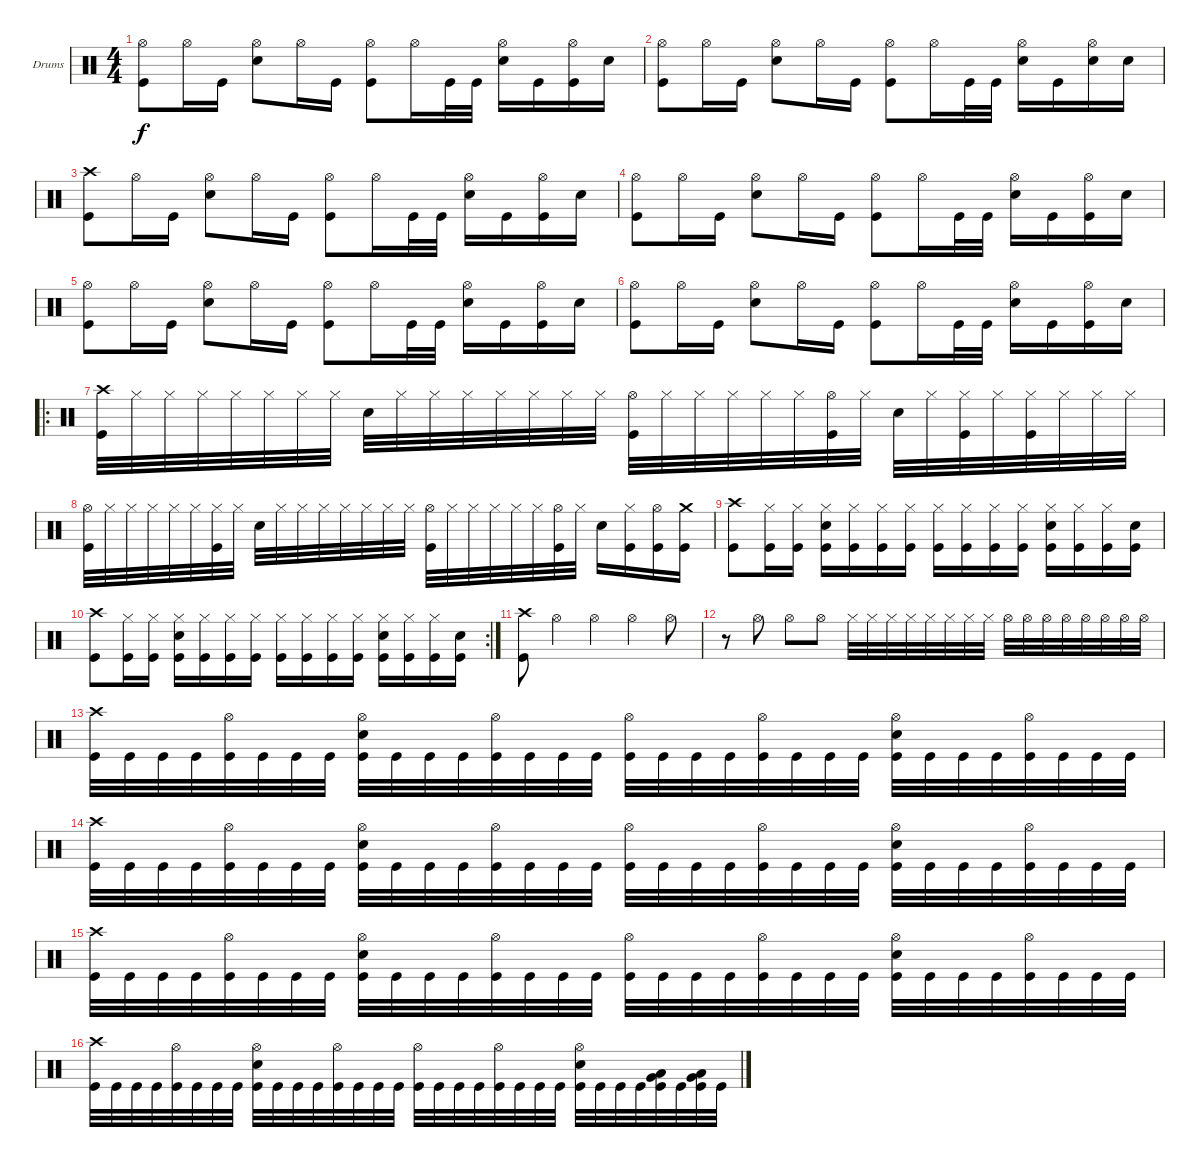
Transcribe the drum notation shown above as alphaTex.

\bracketExtendMode groupsimilarinstruments
\firstSystemTrackNameOrientation horizontal
\otherSystemsTrackNameOrientation horizontal
\track ("Drumkit" "Drums") {instrument percussion}
\staff {score}
\articulation defaults
\ts (4 4)
\tempo (80 hide)
\clef neutral
\ks c
("Hi-Hat (open)" "Kick (hit)").8{dy f} "Hi-Hat (open)".16 "Kick (hit)".16 ("Hi-Hat (open)" "Snare (hit) 2").8 "Hi-Hat (open)".16 "Kick (hit)".16 ("Hi-Hat (open)" "Kick (hit)").8 "Hi-Hat (open)".16 "Kick (hit)".32 "Kick (hit)".32 ("Hi-Hat (open)" "Snare (hit) 2").16 "Kick (hit)".16 ("Hi-Hat (open)" "Kick (hit)").16 "Snare (hit) 2".16 |
("Hi-Hat (open)" "Kick (hit)").8 "Hi-Hat (open)".16 "Kick (hit)".16 ("Hi-Hat (open)" "Snare (hit) 2").8 "Hi-Hat (open)".16 "Kick (hit)".16 ("Hi-Hat (open)" "Kick (hit)").8 "Hi-Hat (open)".16 "Kick (hit)".32 "Kick (hit)".32 ("Hi-Hat (open)" "Snare (hit) 2").16 "Kick (hit)".16 ("Hi-Hat (open)" "Snare (hit) 2").16 "Snare (hit) 2".16 |
("Crash high (hit)" "Kick (hit)").8 "Hi-Hat (open)".16 "Kick (hit)".16 ("Hi-Hat (open)" "Snare (hit) 2").8 "Hi-Hat (open)".16 "Kick (hit)".16 ("Hi-Hat (open)" "Kick (hit)").8 "Hi-Hat (open)".16 "Kick (hit)".32 "Kick (hit)".32 ("Hi-Hat (open)" "Snare (hit) 2").16 "Kick (hit)".16 ("Hi-Hat (open)" "Kick (hit)").16 "Snare (hit) 2".16 |
("Hi-Hat (open)" "Kick (hit)").8 "Hi-Hat (open)".16 "Kick (hit)".16 ("Hi-Hat (open)" "Snare (hit) 2").8 "Hi-Hat (open)".16 "Kick (hit)".16 ("Hi-Hat (open)" "Kick (hit)").8 "Hi-Hat (open)".16 "Kick (hit)".32 "Kick (hit)".32 ("Hi-Hat (open)" "Snare (hit) 2").16 "Kick (hit)".16 ("Hi-Hat (open)" "Kick (hit)").16 "Snare (hit) 2".16 |
("Hi-Hat (open)" "Kick (hit)").8 "Hi-Hat (open)".16 "Kick (hit)".16 ("Hi-Hat (open)" "Snare (hit) 2").8 "Hi-Hat (open)".16 "Kick (hit)".16 ("Hi-Hat (open)" "Kick (hit)").8 "Hi-Hat (open)".16 "Kick (hit)".32 "Kick (hit)".32 ("Hi-Hat (open)" "Snare (hit) 2").16 "Kick (hit)".16 ("Hi-Hat (open)" "Kick (hit)").16 "Snare (hit) 2".16 |
("Hi-Hat (open)" "Kick (hit)").8 "Hi-Hat (open)".16 "Kick (hit)".16 ("Hi-Hat (open)" "Snare (hit) 2").8 "Hi-Hat (open)".16 "Kick (hit)".16 ("Hi-Hat (open)" "Kick (hit)").8 "Hi-Hat (open)".16 "Kick (hit)".32 "Kick (hit)".32 ("Hi-Hat (open)" "Snare (hit) 2").16 "Kick (hit)".16 ("Hi-Hat (open)" "Kick (hit)").16 "Snare (hit) 2".16 |
\ro
("Crash high (hit)" "Kick (hit)").32 "Hi-Hat (closed)".32 "Hi-Hat (closed)".32 "Hi-Hat (closed)".32 "Hi-Hat (closed)".32 "Hi-Hat (closed)".32 "Hi-Hat (closed)".32 "Hi-Hat (closed)".32 "Snare (hit) 2".32 "Hi-Hat (closed)".32 "Hi-Hat (closed)".32 "Hi-Hat (closed)".32 "Hi-Hat (closed)".32 "Hi-Hat (closed)".32 "Hi-Hat (closed)".32 "Hi-Hat (closed)".32 ("Hi-Hat (open)" "Kick (hit)").32 "Hi-Hat (closed)".32 "Hi-Hat (closed)".32 "Hi-Hat (closed)".32 "Hi-Hat (closed)".32 "Hi-Hat (closed)".32 ("Hi-Hat (open)" "Kick (hit)").32 "Hi-Hat (closed)".32 "Snare (hit) 2".32 "Hi-Hat (closed)".32 ("Hi-Hat (closed)" "Kick (hit)").32 "Hi-Hat (closed)".32 ("Hi-Hat (closed)" "Kick (hit)").32 "Hi-Hat (closed)".32 "Hi-Hat (closed)".32 "Hi-Hat (closed)".32 |
("Hi-Hat (open)" "Kick (hit)").32 "Hi-Hat (closed)".32 "Hi-Hat (closed)".32 "Hi-Hat (closed)".32 "Hi-Hat (closed)".32 "Hi-Hat (closed)".32 ("Hi-Hat (closed)" "Kick (hit)").32 "Hi-Hat (closed)".32 "Snare (hit) 2".32 "Hi-Hat (closed)".32 "Hi-Hat (closed)".32 "Hi-Hat (closed)".32 "Hi-Hat (closed)".32 "Hi-Hat (closed)".32 "Hi-Hat (closed)".32 "Hi-Hat (closed)".32 ("Hi-Hat (open)" "Kick (hit)").32 "Hi-Hat (closed)".32 "Hi-Hat (closed)".32 "Hi-Hat (closed)".32 "Hi-Hat (closed)".32 "Hi-Hat (closed)".32 ("Hi-Hat (open)" "Kick (hit)").32 "Hi-Hat (closed)".32 "Snare (hit) 2".16 ("Hi-Hat (closed)" "Kick (hit)").16 ("Hi-Hat (open)" "Kick (hit)").16 ("Crash medium (hit)" "Kick (hit)").16 |
("Crash high (hit)" "Kick (hit)").8 ("Hi-Hat (closed)" "Kick (hit)").16 ("Hi-Hat (closed)" "Kick (hit)").16 ("Hi-Hat (closed)" "Snare (hit) 2" "Kick (hit)").16 ("Hi-Hat (closed)" "Kick (hit)").16 ("Hi-Hat (closed)" "Kick (hit)").16 ("Hi-Hat (closed)" "Kick (hit)").16 ("Hi-Hat (closed)" "Kick (hit)").16 ("Hi-Hat (closed)" "Kick (hit)").16 ("Hi-Hat (closed)" "Kick (hit)").16 ("Hi-Hat (closed)" "Kick (hit)").16 ("Hi-Hat (closed)" "Snare (hit) 2" "Kick (hit)").16 ("Hi-Hat (closed)" "Kick (hit)").16 ("Hi-Hat (closed)" "Kick (hit)").16 ("Snare (hit) 2" "Kick (hit)").16 |
\rc 2
("Crash high (hit)" "Kick (hit)").8 ("Hi-Hat (closed)" "Kick (hit)").16 ("Hi-Hat (closed)" "Kick (hit)").16 ("Hi-Hat (closed)" "Snare (hit) 2" "Kick (hit)").16 ("Hi-Hat (closed)" "Kick (hit)").16 ("Hi-Hat (closed)" "Kick (hit)").16 ("Hi-Hat (closed)" "Kick (hit)").16 ("Hi-Hat (closed)" "Kick (hit)").16 ("Hi-Hat (closed)" "Kick (hit)").16 ("Hi-Hat (closed)" "Kick (hit)").16 ("Hi-Hat (closed)" "Kick (hit)").16 ("Hi-Hat (closed)" "Snare (hit) 2" "Kick (hit)").16 ("Hi-Hat (closed)" "Kick (hit)").16 ("Hi-Hat (closed)" "Kick (hit)").16 ("Snare (hit) 2" "Kick (hit)").16 |
("Crash high (hit)" "Kick (hit)").8 "Hi-Hat (open)".4 "Hi-Hat (open)".4 "Hi-Hat (open)".4 "Hi-Hat (open)".8 |
r.8 "Hi-Hat (open)".8 "Hi-Hat (open)".8 "Hi-Hat (open)".8 "Hi-Hat (closed)".32 "Hi-Hat (closed)".32 "Hi-Hat (closed)".32 "Hi-Hat (closed)".32 "Hi-Hat (closed)".32 "Hi-Hat (closed)".32 "Hi-Hat (closed)".32 "Hi-Hat (closed)".32 "Hi-Hat (open)".32 "Hi-Hat (open)".32 "Hi-Hat (open)".32 "Hi-Hat (open)".32 "Hi-Hat (open)".32 "Hi-Hat (open)".32 "Hi-Hat (open)".32 "Hi-Hat (open)".32 |
("Crash high (hit)" "Kick (hit)").32 "Kick (hit)".32 "Kick (hit)".32 "Kick (hit)".32 ("Hi-Hat (open)" "Kick (hit)").32 "Kick (hit)".32 "Kick (hit)".32 "Kick (hit)".32 ("Hi-Hat (open)" "Snare (hit) 2" "Kick (hit)").32 "Kick (hit)".32 "Kick (hit)".32 "Kick (hit)".32 ("Hi-Hat (open)" "Kick (hit)").32 "Kick (hit)".32 "Kick (hit)".32 "Kick (hit)".32 ("Hi-Hat (open)" "Kick (hit)").32 "Kick (hit)".32 "Kick (hit)".32 "Kick (hit)".32 ("Hi-Hat (open)" "Kick (hit)").32 "Kick (hit)".32 "Kick (hit)".32 "Kick (hit)".32 ("Hi-Hat (open)" "Snare (hit) 2" "Kick (hit)").32 "Kick (hit)".32 "Kick (hit)".32 "Kick (hit)".32 ("Hi-Hat (open)" "Kick (hit)").32 "Kick (hit)".32 "Kick (hit)".32 "Kick (hit)".32 |
("Crash high (hit)" "Kick (hit)").32 "Kick (hit)".32 "Kick (hit)".32 "Kick (hit)".32 ("Hi-Hat (open)" "Kick (hit)").32 "Kick (hit)".32 "Kick (hit)".32 "Kick (hit)".32 ("Hi-Hat (open)" "Snare (hit) 2" "Kick (hit)").32 "Kick (hit)".32 "Kick (hit)".32 "Kick (hit)".32 ("Hi-Hat (open)" "Kick (hit)").32 "Kick (hit)".32 "Kick (hit)".32 "Kick (hit)".32 ("Hi-Hat (open)" "Kick (hit)").32 "Kick (hit)".32 "Kick (hit)".32 "Kick (hit)".32 ("Hi-Hat (open)" "Kick (hit)").32 "Kick (hit)".32 "Kick (hit)".32 "Kick (hit)".32 ("Hi-Hat (open)" "Snare (hit) 2" "Kick (hit)").32 "Kick (hit)".32 "Kick (hit)".32 "Kick (hit)".32 ("Hi-Hat (open)" "Kick (hit)").32 "Kick (hit)".32 "Kick (hit)".32 "Kick (hit)".32 |
("Crash high (hit)" "Kick (hit)").32 "Kick (hit)".32 "Kick (hit)".32 "Kick (hit)".32 ("Hi-Hat (open)" "Kick (hit)").32 "Kick (hit)".32 "Kick (hit)".32 "Kick (hit)".32 ("Hi-Hat (open)" "Snare (hit) 2" "Kick (hit)").32 "Kick (hit)".32 "Kick (hit)".32 "Kick (hit)".32 ("Hi-Hat (open)" "Kick (hit)").32 "Kick (hit)".32 "Kick (hit)".32 "Kick (hit)".32 ("Hi-Hat (open)" "Kick (hit)").32 "Kick (hit)".32 "Kick (hit)".32 "Kick (hit)".32 ("Hi-Hat (open)" "Kick (hit)").32 "Kick (hit)".32 "Kick (hit)".32 "Kick (hit)".32 ("Hi-Hat (open)" "Snare (hit) 2" "Kick (hit)").32 "Kick (hit)".32 "Kick (hit)".32 "Kick (hit)".32 ("Hi-Hat (open)" "Kick (hit)").32 "Kick (hit)".32 "Kick (hit)".32 "Kick (hit)".32 |
("Crash high (hit)" "Kick (hit)").32 "Kick (hit)".32 "Kick (hit)".32 "Kick (hit)".32 ("Hi-Hat (open)" "Kick (hit)").32 "Kick (hit)".32 "Kick (hit)".32 "Kick (hit)".32 ("Hi-Hat (open)" "Snare (hit) 2" "Kick (hit)").32 "Kick (hit)".32 "Kick (hit)".32 "Kick (hit)".32 ("Hi-Hat (open)" "Kick (hit)").32 "Kick (hit)".32 "Kick (hit)".32 "Kick (hit)".32 ("Hi-Hat (open)" "Kick (hit)").32 "Kick (hit)".32 "Kick (hit)".32 "Kick (hit)".32 ("Hi-Hat (open)" "Kick (hit)").32 "Kick (hit)".32 "Kick (hit)".32 "Kick (hit)".32 ("Hi-Hat (open)" "Snare (hit) 2" "Kick (hit)").32 "Kick (hit)".32 "Kick (hit)".32 "Kick (hit)".32 ("Low Tom (hit)" "Very Low Tom (hit)" "Kick (hit)").32 "Kick (hit)".32 ("Low Tom (hit)" "Very Low Tom (hit)" "Kick (hit)").32 "Kick (hit)".32
